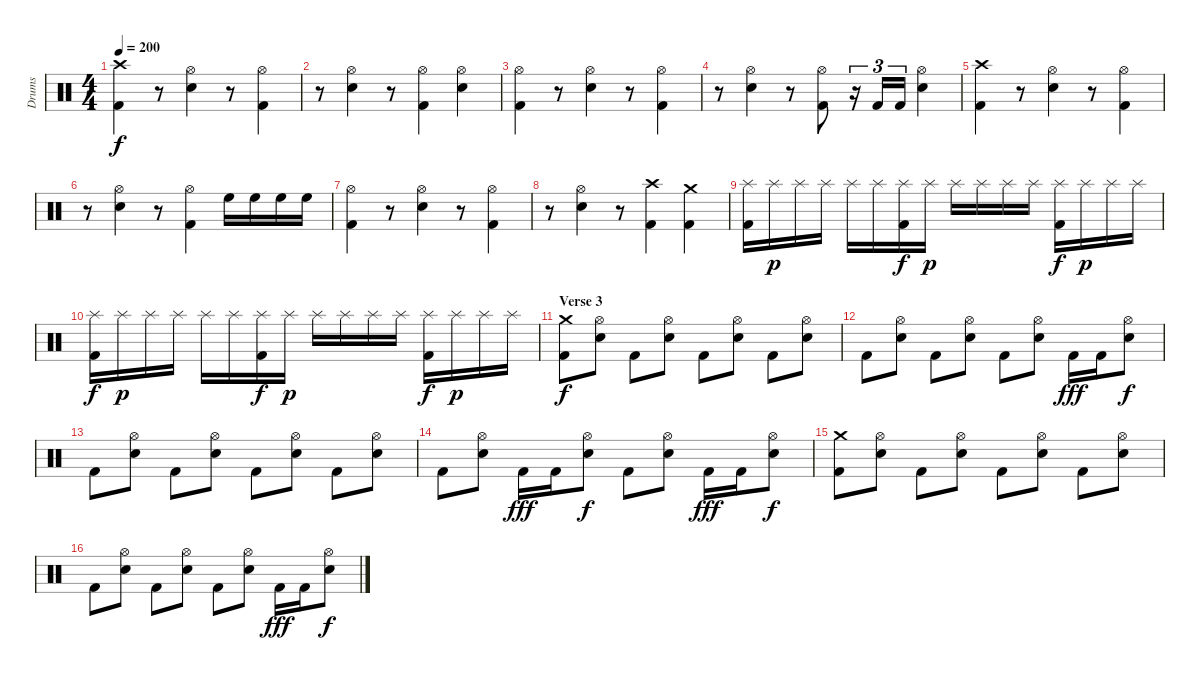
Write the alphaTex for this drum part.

\track ("Drums" "Drums") {instrument percussion}
\staff {score}
\articulation defaults
\ts (4 4)
\tempo 200
\clef neutral
\ks c
("Crash high (hit)" "Kick (hit) 2").4{dy f} r.8 ("Hi-Hat (open)" "Snare (hit) 2").4 r.8 ("Hi-Hat (open)" "Kick (hit) 2").4 |
r.8 ("Hi-Hat (open)" "Snare (hit) 2").4 r.8 ("Hi-Hat (open)" "Kick (hit) 2").4 ("Hi-Hat (open)" "Snare (hit) 2").4 |
("Hi-Hat (open)" "Kick (hit) 2").4 r.8 ("Hi-Hat (open)" "Snare (hit) 2").4 r.8 ("Hi-Hat (open)" "Kick (hit) 2").4 |
r.8 ("Hi-Hat (open)" "Snare (hit) 2").4 r.8 ("Hi-Hat (open)" "Kick (hit) 2").8 r.16{tu (3 2)} "Kick (hit) 2".16{tu (3 2)} "Kick (hit) 2".16{tu (3 2)} ("Hi-Hat (open)" "Snare (hit) 2").4 |
("Crash high (hit)" "Kick (hit) 2").4 r.8 ("Hi-Hat (open)" "Snare (hit) 2").4 r.8 ("Hi-Hat (open)" "Kick (hit) 2").4 |
r.8 ("Hi-Hat (open)" "Snare (hit) 2").4 r.8 ("Hi-Hat (open)" "Kick (hit) 2").4 "High Floor Tom (hit)".16 "High Floor Tom (hit)".16 "High Floor Tom (hit)".16 "High Floor Tom (hit)".16 |
("Hi-Hat (open)" "Kick (hit) 2").4 r.8 ("Hi-Hat (open)" "Snare (hit) 2").4 r.8 ("Hi-Hat (open)" "Kick (hit) 2").4 |
r.8 ("Hi-Hat (open)" "Snare (hit) 2").4 r.8 ("Crash high (hit)" "Kick (hit) 2").4 ("Crash medium (hit)" "Kick (hit) 2").4 |
("Splash (hit)" "Kick (hit) 2").16 "Splash (hit)".16{dy p} "Splash (hit)".16 "Splash (hit)".16 "Splash (hit)".16 "Splash (hit)".16 ("Splash (hit)" "Kick (hit) 2").16{dy f} "Splash (hit)".16{dy p} "Splash (hit)".16 "Splash (hit)".16 "Splash (hit)".16 "Splash (hit)".16 ("Splash (hit)" "Kick (hit) 2").16{dy f} "Splash (hit)".16{dy p} "Splash (hit)".16 "Splash (hit)".16 |
("Splash (hit)" "Kick (hit) 2").16{dy f} "Splash (hit)".16{dy p} "Splash (hit)".16 "Splash (hit)".16 "Splash (hit)".16 "Splash (hit)".16 ("Splash (hit)" "Kick (hit) 2").16{dy f} "Splash (hit)".16{dy p} "Splash (hit)".16 "Splash (hit)".16 "Splash (hit)".16 "Splash (hit)".16 ("Splash (hit)" "Kick (hit) 2").16{dy f} "Splash (hit)".16{dy p} "Splash (hit)".16 "Splash (hit)".16 |
\section ("" "Verse 3")
("Crash medium (hit)" "Kick (hit) 2").8{dy f} ("Hi-Hat (open)" "Snare (hit) 2").8 "Kick (hit) 2".8 ("Hi-Hat (open)" "Snare (hit) 2").8 "Kick (hit) 2".8 ("Hi-Hat (open)" "Snare (hit) 2").8 "Kick (hit) 2".8 ("Hi-Hat (open)" "Snare (hit) 2").8 |
"Kick (hit) 2".8 ("Hi-Hat (open)" "Snare (hit) 2").8 "Kick (hit) 2".8 ("Hi-Hat (open)" "Snare (hit) 2").8 "Kick (hit) 2".8 ("Hi-Hat (open)" "Snare (hit) 2").8 "Kick (hit) 2".16{dy fff} "Kick (hit) 2".16 ("Hi-Hat (open)" "Snare (hit) 2").8{dy f} |
"Kick (hit) 2".8 ("Hi-Hat (open)" "Snare (hit) 2").8 "Kick (hit) 2".8 ("Hi-Hat (open)" "Snare (hit) 2").8 "Kick (hit) 2".8 ("Hi-Hat (open)" "Snare (hit) 2").8 "Kick (hit) 2".8 ("Hi-Hat (open)" "Snare (hit) 2").8 |
"Kick (hit) 2".8 ("Hi-Hat (open)" "Snare (hit) 2").8 "Kick (hit) 2".16{dy fff} "Kick (hit) 2".16 ("Hi-Hat (open)" "Snare (hit) 2").8{dy f} "Kick (hit) 2".8 ("Hi-Hat (open)" "Snare (hit) 2").8 "Kick (hit) 2".16{dy fff} "Kick (hit) 2".16 ("Hi-Hat (open)" "Snare (hit) 2").8{dy f} |
("Crash medium (hit)" "Kick (hit) 2").8 ("Hi-Hat (open)" "Snare (hit) 2").8 "Kick (hit) 2".8 ("Hi-Hat (open)" "Snare (hit) 2").8 "Kick (hit) 2".8 ("Hi-Hat (open)" "Snare (hit) 2").8 "Kick (hit) 2".8 ("Hi-Hat (open)" "Snare (hit) 2").8 |
"Kick (hit) 2".8 ("Hi-Hat (open)" "Snare (hit) 2").8 "Kick (hit) 2".8 ("Hi-Hat (open)" "Snare (hit) 2").8 "Kick (hit) 2".8 ("Hi-Hat (open)" "Snare (hit) 2").8 "Kick (hit) 2".16{dy fff} "Kick (hit) 2".16 ("Hi-Hat (open)" "Snare (hit) 2").8{dy f}
